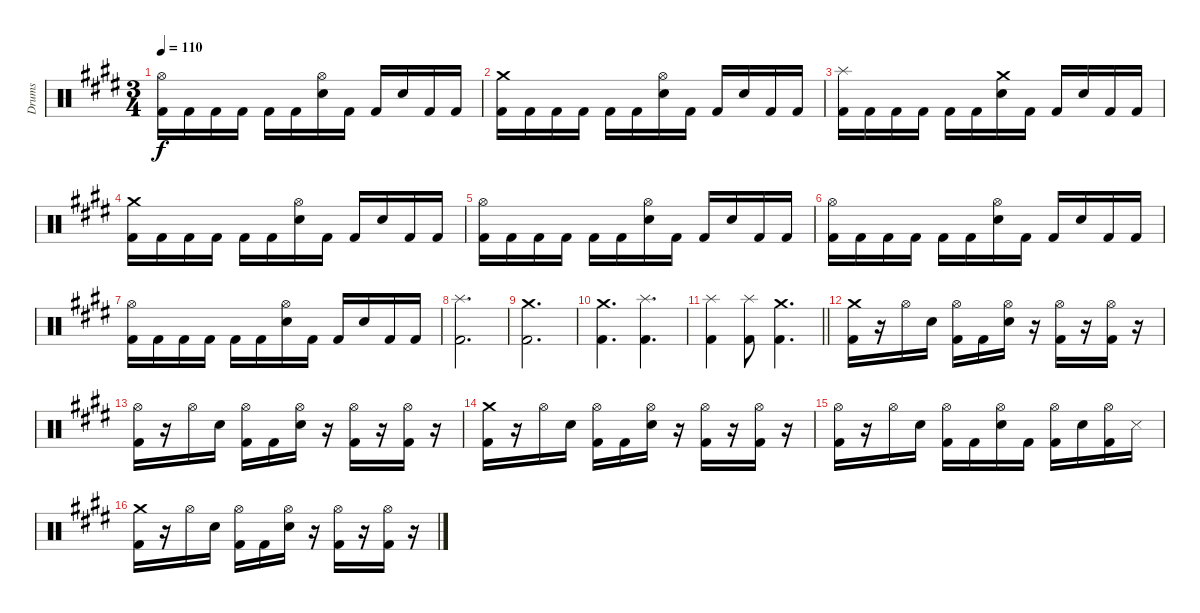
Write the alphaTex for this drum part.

\track ("Drums" "Drums") {instrument percussion}
\staff {score}
\articulation defaults
\ts (3 4)
\tempo 110
\clef neutral
\ks c#minor
("Kick (hit) 2" "Hi-Hat (open)").16{dy f} "Kick (hit) 2".16 "Kick (hit) 2".16 "Kick (hit) 2".16 "Kick (hit) 2".16 "Kick (hit) 2".16 ("Electric Snare (hit)" "Hi-Hat (open)").16 "Kick (hit) 2".16 "Kick (hit) 2".16 "Electric Snare (hit)".16 "Kick (hit) 2".16 "Kick (hit) 2".16 |
("Kick (hit) 2" "Crash medium (hit)").16 "Kick (hit) 2".16 "Kick (hit) 2".16 "Kick (hit) 2".16 "Kick (hit) 2".16 "Kick (hit) 2".16 ("Electric Snare (hit)" "Hi-Hat (open)").16 "Kick (hit) 2".16 "Kick (hit) 2".16 "Electric Snare (hit)".16 "Kick (hit) 2".16 "Kick (hit) 2".16 |
("Kick (hit) 2" "Splash (hit)").16 "Kick (hit) 2".16 "Kick (hit) 2".16 "Kick (hit) 2".16 "Kick (hit) 2".16 "Kick (hit) 2".16 ("Electric Snare (hit)" "Crash medium (hit)").16 "Kick (hit) 2".16 "Kick (hit) 2".16 "Electric Snare (hit)".16 "Kick (hit) 2".16 "Kick (hit) 2".16 |
("Kick (hit) 2" "Crash medium (hit)").16 "Kick (hit) 2".16 "Kick (hit) 2".16 "Kick (hit) 2".16 "Kick (hit) 2".16 "Kick (hit) 2".16 ("Electric Snare (hit)" "Hi-Hat (open)").16 "Kick (hit) 2".16 "Kick (hit) 2".16 "Electric Snare (hit)".16 "Kick (hit) 2".16 "Kick (hit) 2".16 |
("Kick (hit) 2" "Hi-Hat (open)").16 "Kick (hit) 2".16 "Kick (hit) 2".16 "Kick (hit) 2".16 "Kick (hit) 2".16 "Kick (hit) 2".16 ("Electric Snare (hit)" "Hi-Hat (open)").16 "Kick (hit) 2".16 "Kick (hit) 2".16 "Electric Snare (hit)".16 "Kick (hit) 2".16 "Kick (hit) 2".16 |
("Kick (hit) 2" "Hi-Hat (open)").16 "Kick (hit) 2".16 "Kick (hit) 2".16 "Kick (hit) 2".16 "Kick (hit) 2".16 "Kick (hit) 2".16 ("Electric Snare (hit)" "Hi-Hat (open)").16 "Kick (hit) 2".16 "Kick (hit) 2".16 "Electric Snare (hit)".16 "Kick (hit) 2".16 "Kick (hit) 2".16 |
("Kick (hit) 2" "Hi-Hat (open)").16 "Kick (hit) 2".16 "Kick (hit) 2".16 "Kick (hit) 2".16 "Kick (hit) 2".16 "Kick (hit) 2".16 ("Electric Snare (hit)" "Hi-Hat (open)").16 "Kick (hit) 2".16 "Kick (hit) 2".16 "Electric Snare (hit)".16 "Kick (hit) 2".16 "Kick (hit) 2".16 |
("Kick (hit) 2" "Splash (hit)").2{d} |
("Kick (hit) 2" "Crash medium (hit)").2{d} |
("Kick (hit) 2" "Crash medium (hit)").4{d} ("Kick (hit) 2" "Splash (hit)").4{d} |
\barLineRight lightlight
("Kick (hit) 2" "Splash (hit)").4 ("Kick (hit) 2" "Splash (hit)").8 ("Kick (hit) 2" "Crash medium (hit)").4{d} |
("Kick (hit) 2" "Crash medium (hit)").16 r.16 "Hi-Hat (open)".16 "Electric Snare (hit)".16 ("Kick (hit) 2" "Hi-Hat (open)").16 "Kick (hit) 2".16 ("Electric Snare (hit)" "Hi-Hat (open)").16 r.16 ("Kick (hit) 2" "Hi-Hat (open)").16 r.16 ("Kick (hit) 2" "Hi-Hat (open)").16 r.16 |
("Kick (hit) 2" "Hi-Hat (open)").16 r.16 "Hi-Hat (open)".16 "Electric Snare (hit)".16 ("Kick (hit) 2" "Hi-Hat (open)").16 "Kick (hit) 2".16 ("Electric Snare (hit)" "Hi-Hat (open)").16 r.16 ("Kick (hit) 2" "Hi-Hat (open)").16 r.16 ("Kick (hit) 2" "Hi-Hat (open)").16 r.16 |
("Kick (hit) 2" "Crash medium (hit)").16 r.16 "Hi-Hat (open)".16 "Electric Snare (hit)".16 ("Kick (hit) 2" "Hi-Hat (open)").16 "Kick (hit) 2".16 ("Electric Snare (hit)" "Hi-Hat (open)").16 r.16 ("Kick (hit) 2" "Hi-Hat (open)").16 r.16 ("Kick (hit) 2" "Hi-Hat (open)").16 r.16 |
("Kick (hit) 2" "Hi-Hat (open)").16 r.16 "Hi-Hat (open)".16 "Electric Snare (hit)".16 ("Kick (hit) 2" "Hi-Hat (open)").16 "Kick (hit) 2".16 ("Electric Snare (hit)" "Hi-Hat (open)").16 "Kick (hit) 2".16 ("Kick (hit) 2" "Hi-Hat (open)").16 "Electric Snare (hit)".16 ("Kick (hit) 2" "Hi-Hat (open)").16 "Metronome (hit)".16 |
("Kick (hit) 2" "Crash medium (hit)").16 r.16 "Hi-Hat (open)".16 "Electric Snare (hit)".16 ("Kick (hit) 2" "Hi-Hat (open)").16 "Kick (hit) 2".16 ("Electric Snare (hit)" "Hi-Hat (open)").16 r.16 ("Kick (hit) 2" "Hi-Hat (open)").16 r.16 ("Kick (hit) 2" "Hi-Hat (open)").16 r.16
